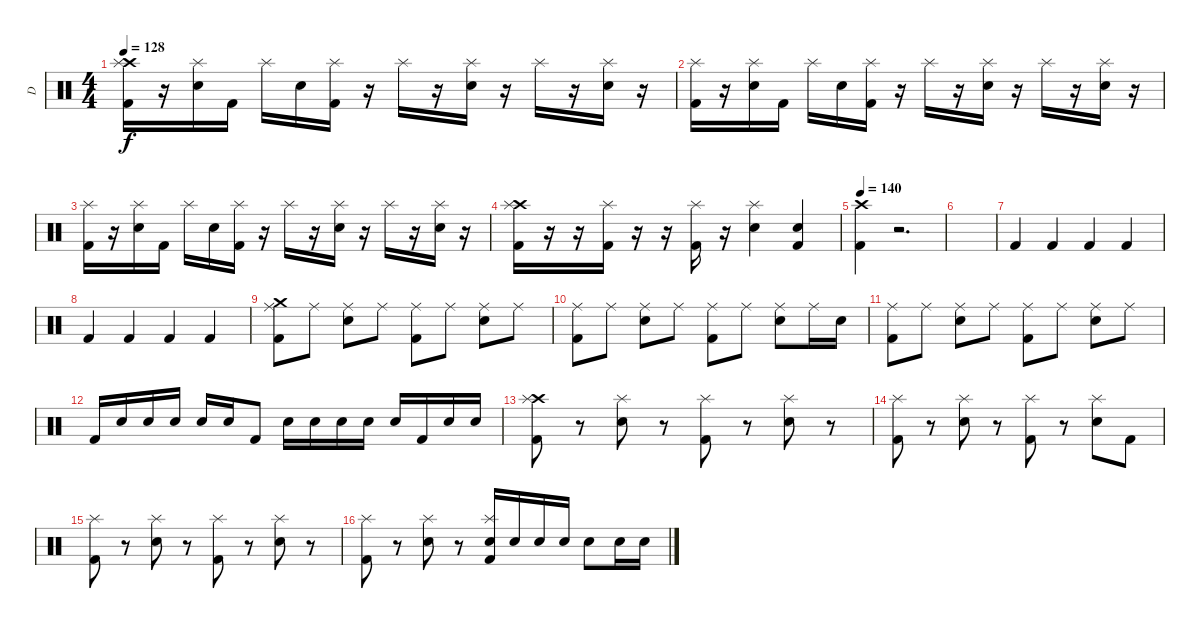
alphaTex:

\track ("D" "D") {instrument percussion}
\staff {score}
\articulation defaults
\ts (4 4)
\tempo 128
\clef neutral
\ks c
("Crash high (hit)" "Kick (hit) 2" "Splash (hit)").16{dy f} r.16 ("Electric Snare (hit)" "Splash (hit)").16 "Kick (hit) 2".16 "Splash (hit)".16 "Electric Snare (hit)".16 ("Kick (hit) 2" "Splash (hit)").16 r.16 "Splash (hit)".16 r.16 ("Electric Snare (hit)" "Splash (hit)").16 r.16 "Splash (hit)".16 r.16 ("Electric Snare (hit)" "Splash (hit)").16 r.16 |
("Kick (hit) 2" "Splash (hit)").16 r.16 ("Electric Snare (hit)" "Splash (hit)").16 "Kick (hit) 2".16 "Splash (hit)".16 "Electric Snare (hit)".16 ("Kick (hit) 2" "Splash (hit)").16 r.16 "Splash (hit)".16 r.16 ("Electric Snare (hit)" "Splash (hit)").16 r.16 "Splash (hit)".16 r.16 ("Electric Snare (hit)" "Splash (hit)").16 r.16 |
("Kick (hit) 2" "Splash (hit)").16 r.16 ("Electric Snare (hit)" "Splash (hit)").16 "Kick (hit) 2".16 "Splash (hit)".16 "Electric Snare (hit)".16 ("Kick (hit) 2" "Splash (hit)").16 r.16 "Splash (hit)".16 r.16 ("Electric Snare (hit)" "Splash (hit)").16 r.16 "Splash (hit)".16 r.16 ("Electric Snare (hit)" "Splash (hit)").16 r.16 |
("Crash high (hit)" "Kick (hit) 2" "Splash (hit)").16 r.16 r.16 ("Kick (hit) 2" "Splash (hit)").16 r.16 r.16 ("Kick (hit) 2" "Splash (hit)").16 r.16 ("Electric Snare (hit)" "Splash (hit)").4 ("Electric Snare (hit)" "Kick (hit) 2").4 |
\tempo 140
("Crash high (hit)" "Kick (hit) 2").4 r.2{d} |
|
"Kick (hit) 2".4 "Kick (hit) 2".4 "Kick (hit) 2".4 "Kick (hit) 2".4 |
"Kick (hit) 2".4 "Kick (hit) 2".4 "Kick (hit) 2".4 "Kick (hit) 2".4 |
("Crash medium (hit)" "Kick (hit) 2" "Ride (middle)").8 "Ride (middle)".8 ("Electric Snare (hit)" "Ride (middle)").8 "Ride (middle)".8 ("Kick (hit) 2" "Ride (middle)").8 "Ride (middle)".8 ("Electric Snare (hit)" "Ride (middle)").8 "Ride (middle)".8 |
("Kick (hit) 2" "Ride (middle)").8 "Ride (middle)".8 ("Electric Snare (hit)" "Ride (middle)").8 "Ride (middle)".8 ("Kick (hit) 2" "Ride (middle)").8 "Ride (middle)".8 ("Electric Snare (hit)" "Ride (middle)").8 "Ride (middle)".16 "Electric Snare (hit)".16 |
("Kick (hit) 2" "Ride (middle)").8 "Ride (middle)".8 ("Electric Snare (hit)" "Ride (middle)").8 "Ride (middle)".8 ("Kick (hit) 2" "Ride (middle)").8 "Ride (middle)".8 ("Electric Snare (hit)" "Ride (middle)").8 "Ride (middle)".8 |
"Kick (hit) 2".16 "Electric Snare (hit)".16 "Electric Snare (hit)".16 "Electric Snare (hit)".16 "Electric Snare (hit)".16 "Electric Snare (hit)".16 "Kick (hit) 2".8 "Electric Snare (hit)".16 "Electric Snare (hit)".16 "Electric Snare (hit)".16 "Electric Snare (hit)".16 "Electric Snare (hit)".16 "Kick (hit) 2".16 "Electric Snare (hit)".16 "Electric Snare (hit)".16 |
("Crash high (hit)" "Kick (hit) 2" "Splash (hit)").8 r.8 ("Electric Snare (hit)" "Splash (hit)").8 r.8 ("Kick (hit) 2" "Splash (hit)").8 r.8 ("Electric Snare (hit)" "Splash (hit)").8 r.8 |
("Kick (hit) 2" "Splash (hit)").8 r.8 ("Electric Snare (hit)" "Splash (hit)").8 r.8 ("Kick (hit) 2" "Splash (hit)").8 r.8 ("Electric Snare (hit)" "Splash (hit)").8 "Kick (hit) 2".8 |
("Kick (hit) 2" "Splash (hit)").8 r.8 ("Electric Snare (hit)" "Splash (hit)").8 r.8 ("Kick (hit) 2" "Splash (hit)").8 r.8 ("Electric Snare (hit)" "Splash (hit)").8 r.8 |
("Kick (hit) 2" "Splash (hit)").8 r.8 ("Electric Snare (hit)" "Splash (hit)").8 r.8 ("Electric Snare (hit)" "Kick (hit) 2" "Splash (hit)").16 "Electric Snare (hit)".16 "Electric Snare (hit)".16 "Electric Snare (hit)".16 "Electric Snare (hit)".8 "Electric Snare (hit)".16 "Electric Snare (hit)".16
